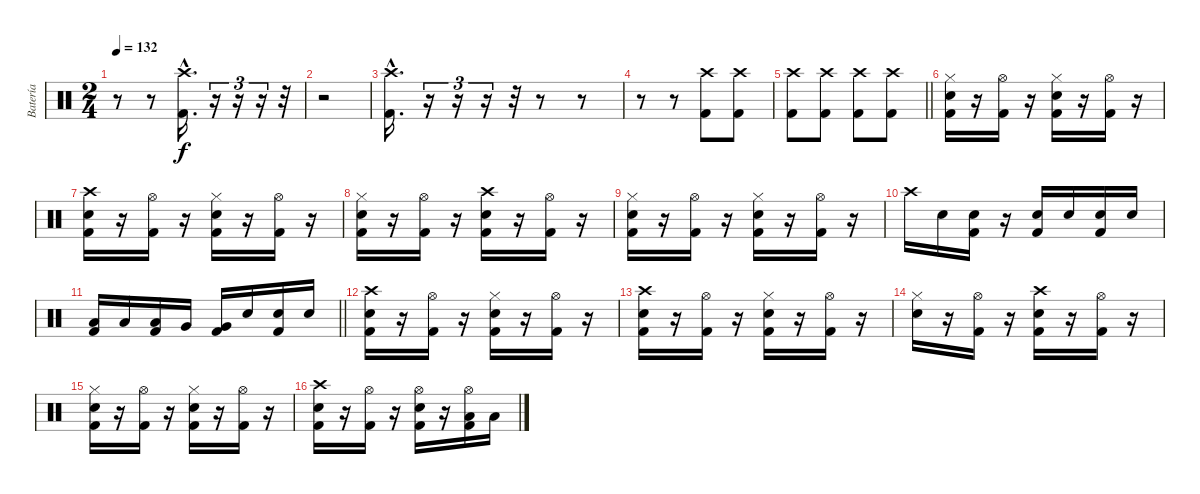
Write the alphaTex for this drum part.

\track ("Batería   (Jony)" "Batería   ") {instrument percussion}
\staff {score}
\articulation defaults
\ts (2 4)
\tempo 132
\clef neutral
\ks c
r.8{dy f} r.8 ("Crash high (hit)"{hac} "Kick (hit) 2"{hac}).16{d} r.16{tu (3 2)} r.16{tu (3 2)} r.16{tu (3 2)} r.32 |
r.2 |
("Crash high (hit)"{hac} "Kick (hit) 2"{hac}).16{d} r.16{tu (3 2)} r.16{tu (3 2)} r.16{tu (3 2)} r.32 r.8 r.8 |
r.8 r.8 ("Crash high (hit)" "Kick (hit) 2").8 ("Crash high (hit)" "Kick (hit) 2").8 |
\barLineRight lightlight
("Crash high (hit)" "Kick (hit) 2").8 ("Crash high (hit)" "Kick (hit) 2").8 ("Crash high (hit)" "Kick (hit) 2").8 ("Crash high (hit)" "Kick (hit) 2").8 |
("Hi-Hat (closed)" "Electric Snare (hit)" "Kick (hit) 2").16 r.16 ("Hi-Hat (open)" "Kick (hit) 2").16 r.16 ("Hi-Hat (closed)" "Electric Snare (hit)" "Kick (hit) 2").16 r.16 ("Hi-Hat (open)" "Kick (hit) 2").16 r.16 |
("Crash high (hit)" "Electric Snare (hit)" "Kick (hit) 2").16 r.16 ("Hi-Hat (open)" "Kick (hit) 2").16 r.16 ("Hi-Hat (closed)" "Electric Snare (hit)" "Kick (hit) 2").16 r.16 ("Hi-Hat (open)" "Kick (hit) 2").16 r.16 |
("Hi-Hat (closed)" "Electric Snare (hit)" "Kick (hit) 2").16 r.16 ("Hi-Hat (open)" "Kick (hit) 2").16 r.16 ("Crash high (hit)" "Electric Snare (hit)" "Kick (hit) 2").16 r.16 ("Hi-Hat (open)" "Kick (hit) 2").16 r.16 |
("Hi-Hat (closed)" "Electric Snare (hit)" "Kick (hit) 2").16 r.16 ("Hi-Hat (open)" "Kick (hit) 2").16 r.16 ("Hi-Hat (closed)" "Electric Snare (hit)" "Kick (hit) 2").16 r.16 ("Hi-Hat (open)" "Kick (hit) 2").16 r.16 |
"Crash high (hit)".16 "Electric Snare (hit)".16 ("Electric Snare (hit)" "Kick (hit) 2").16 r.16 ("Electric Snare (hit)" "Kick (hit) 2").16 "Electric Snare (hit)".16 ("Electric Snare (hit)" "Kick (hit) 2").16 "Electric Snare (hit)".16 |
\barLineRight lightlight
("Low Tom (hit)" "Kick (hit) 2").16 "Low Tom (hit)".16 ("Low Tom (hit)" "Kick (hit) 2").16 "Very Low Tom (hit)".16 ("Very Low Tom (hit)" "Kick (hit) 2").16 "Electric Snare (hit)".16 ("Electric Snare (hit)" "Kick (hit) 2").16 "Electric Snare (hit)".16 |
("Crash high (hit)" "Electric Snare (hit)" "Kick (hit) 2").16 r.16 ("Hi-Hat (open)" "Kick (hit) 2").16 r.16 ("Hi-Hat (closed)" "Electric Snare (hit)" "Kick (hit) 2").16 r.16 ("Hi-Hat (open)" "Kick (hit) 2").16 r.16 |
("Crash high (hit)" "Electric Snare (hit)" "Kick (hit) 2").16 r.16 ("Hi-Hat (open)" "Kick (hit) 2").16 r.16 ("Hi-Hat (closed)" "Electric Snare (hit)" "Kick (hit) 2").16 r.16 ("Hi-Hat (open)" "Kick (hit) 2").16 r.16 |
("Hi-Hat (closed)" "Electric Snare (hit)").16 r.16 ("Hi-Hat (open)" "Kick (hit) 2").16 r.16 ("Crash high (hit)" "Electric Snare (hit)" "Kick (hit) 2").16 r.16 ("Hi-Hat (open)" "Kick (hit) 2").16 r.16 |
("Hi-Hat (closed)" "Electric Snare (hit)" "Kick (hit) 2").16 r.16 ("Hi-Hat (open)" "Kick (hit) 2").16 r.16 ("Hi-Hat (closed)" "Electric Snare (hit)" "Kick (hit) 2").16 r.16 ("Hi-Hat (open)" "Kick (hit) 2").16 r.16 |
("Crash high (hit)" "Electric Snare (hit)" "Kick (hit) 2").16 r.16 ("Hi-Hat (open)" "Kick (hit) 2").16 r.16 ("Hi-Hat (open)" "Electric Snare (hit)" "Kick (hit) 2").16 r.16 ("Hi-Hat (open)" "Low Tom (hit)" "Kick (hit) 2").16 "Low Tom (hit)".16
